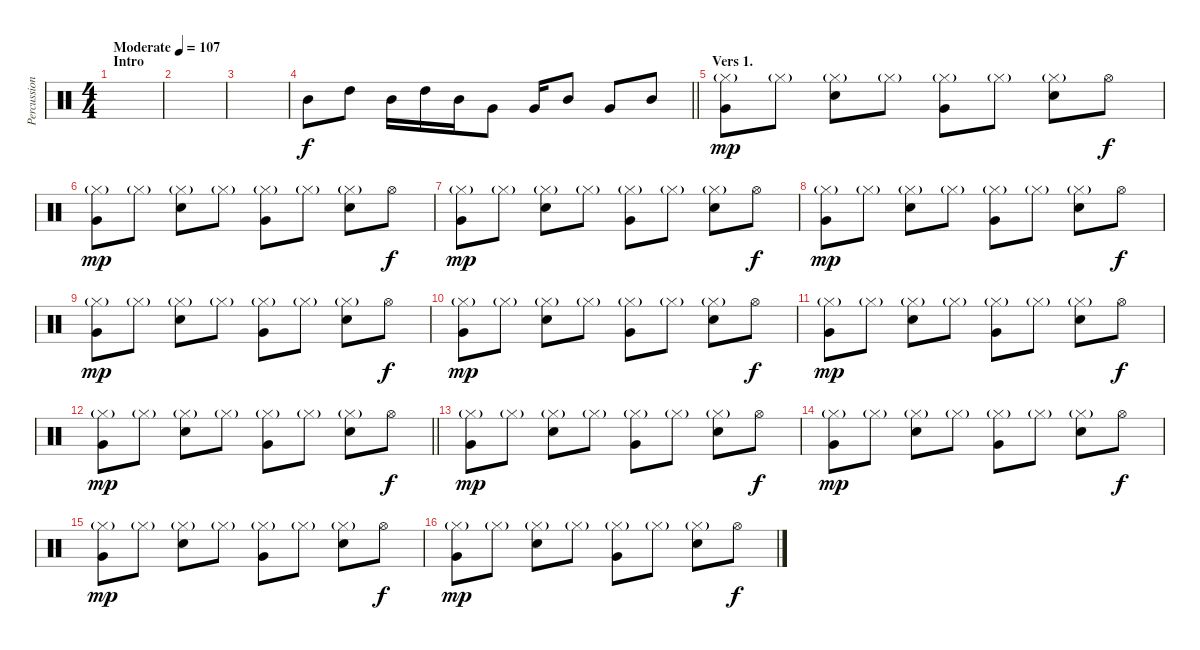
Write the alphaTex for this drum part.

\track ("Percussion" "Percussion") {instrument percussion}
\staff {score}
\articulation defaults
\ts (4 4)
\section ("" "Intro")
\tempo (107 "Moderate")
\clef neutral
\ks c
|
|
|
\barLineRight lightlight "Mid Tom (hit)".8{volume 9} "High Tom (hit)".8 "Mid Tom (hit)".16 "High Tom (hit)".16 "Mid Tom (hit)".16 "Very Low Tom (hit)".8 "Very Low Tom (hit)".16 "Mid Tom (hit)".8 "Very Low Tom (hit)".8 "Mid Tom (hit)".8
|
\section ("" "Vers 1.")
("Hi-Hat (closed)"{g} "Very Low Tom (hit)").8{dy mp volume 6} "Hi-Hat (closed)"{g}.8 ("Hi-Hat (closed)"{g} "Electric Snare (hit)").8 "Hi-Hat (closed)"{g}.8 ("Hi-Hat (closed)"{g} "Very Low Tom (hit)").8 "Hi-Hat (closed)"{g}.8 ("Hi-Hat (closed)"{g} "Electric Snare (hit)").8 "Hi-Hat (open)".8{dy f} |
("Hi-Hat (closed)"{g} "Very Low Tom (hit)").8{dy mp} "Hi-Hat (closed)"{g}.8 ("Hi-Hat (closed)"{g} "Electric Snare (hit)").8 "Hi-Hat (closed)"{g}.8 ("Hi-Hat (closed)"{g} "Very Low Tom (hit)").8 "Hi-Hat (closed)"{g}.8 ("Hi-Hat (closed)"{g} "Electric Snare (hit)").8 "Hi-Hat (open)".8{dy f} |
("Hi-Hat (closed)"{g} "Very Low Tom (hit)").8{dy mp} "Hi-Hat (closed)"{g}.8 ("Hi-Hat (closed)"{g} "Electric Snare (hit)").8 "Hi-Hat (closed)"{g}.8 ("Hi-Hat (closed)"{g} "Very Low Tom (hit)").8 "Hi-Hat (closed)"{g}.8 ("Hi-Hat (closed)"{g} "Electric Snare (hit)").8 "Hi-Hat (open)".8{dy f} |
("Hi-Hat (closed)"{g} "Very Low Tom (hit)").8{dy mp} "Hi-Hat (closed)"{g}.8 ("Hi-Hat (closed)"{g} "Electric Snare (hit)").8 "Hi-Hat (closed)"{g}.8 ("Hi-Hat (closed)"{g} "Very Low Tom (hit)").8 "Hi-Hat (closed)"{g}.8 ("Hi-Hat (closed)"{g} "Electric Snare (hit)").8 "Hi-Hat (open)".8{dy f} |
("Hi-Hat (closed)"{g} "Very Low Tom (hit)").8{dy mp} "Hi-Hat (closed)"{g}.8 ("Hi-Hat (closed)"{g} "Electric Snare (hit)").8 "Hi-Hat (closed)"{g}.8 ("Hi-Hat (closed)"{g} "Very Low Tom (hit)").8 "Hi-Hat (closed)"{g}.8 ("Hi-Hat (closed)"{g} "Electric Snare (hit)").8 "Hi-Hat (open)".8{dy f} |
("Hi-Hat (closed)"{g} "Very Low Tom (hit)").8{dy mp} "Hi-Hat (closed)"{g}.8 ("Hi-Hat (closed)"{g} "Electric Snare (hit)").8 "Hi-Hat (closed)"{g}.8 ("Hi-Hat (closed)"{g} "Very Low Tom (hit)").8 "Hi-Hat (closed)"{g}.8 ("Hi-Hat (closed)"{g} "Electric Snare (hit)").8 "Hi-Hat (open)".8{dy f} |
("Hi-Hat (closed)"{g} "Very Low Tom (hit)").8{dy mp} "Hi-Hat (closed)"{g}.8 ("Hi-Hat (closed)"{g} "Electric Snare (hit)").8 "Hi-Hat (closed)"{g}.8 ("Hi-Hat (closed)"{g} "Very Low Tom (hit)").8 "Hi-Hat (closed)"{g}.8 ("Hi-Hat (closed)"{g} "Electric Snare (hit)").8 "Hi-Hat (open)".8{dy f} |
\barLineRight lightlight
("Hi-Hat (closed)"{g} "Very Low Tom (hit)").8{dy mp} "Hi-Hat (closed)"{g}.8 ("Hi-Hat (closed)"{g} "Electric Snare (hit)").8 "Hi-Hat (closed)"{g}.8 ("Hi-Hat (closed)"{g} "Very Low Tom (hit)").8 "Hi-Hat (closed)"{g}.8 ("Hi-Hat (closed)"{g} "Electric Snare (hit)").8 "Hi-Hat (open)".8{dy f} |
("Hi-Hat (closed)"{g} "Very Low Tom (hit)").8{dy mp} "Hi-Hat (closed)"{g}.8 ("Hi-Hat (closed)"{g} "Electric Snare (hit)").8 "Hi-Hat (closed)"{g}.8 ("Hi-Hat (closed)"{g} "Very Low Tom (hit)").8 "Hi-Hat (closed)"{g}.8 ("Hi-Hat (closed)"{g} "Electric Snare (hit)").8 "Hi-Hat (open)".8{dy f} |
("Hi-Hat (closed)"{g} "Very Low Tom (hit)").8{dy mp} "Hi-Hat (closed)"{g}.8 ("Hi-Hat (closed)"{g} "Electric Snare (hit)").8 "Hi-Hat (closed)"{g}.8 ("Hi-Hat (closed)"{g} "Very Low Tom (hit)").8 "Hi-Hat (closed)"{g}.8 ("Hi-Hat (closed)"{g} "Electric Snare (hit)").8 "Hi-Hat (open)".8{dy f} |
("Hi-Hat (closed)"{g} "Very Low Tom (hit)").8{dy mp} "Hi-Hat (closed)"{g}.8 ("Hi-Hat (closed)"{g} "Electric Snare (hit)").8 "Hi-Hat (closed)"{g}.8 ("Hi-Hat (closed)"{g} "Very Low Tom (hit)").8 "Hi-Hat (closed)"{g}.8 ("Hi-Hat (closed)"{g} "Electric Snare (hit)").8 "Hi-Hat (open)".8{dy f} |
("Hi-Hat (closed)"{g} "Very Low Tom (hit)").8{dy mp} "Hi-Hat (closed)"{g}.8 ("Hi-Hat (closed)"{g} "Electric Snare (hit)").8 "Hi-Hat (closed)"{g}.8 ("Hi-Hat (closed)"{g} "Very Low Tom (hit)").8 "Hi-Hat (closed)"{g}.8 ("Hi-Hat (closed)"{g} "Electric Snare (hit)").8 "Hi-Hat (open)".8{dy f}
